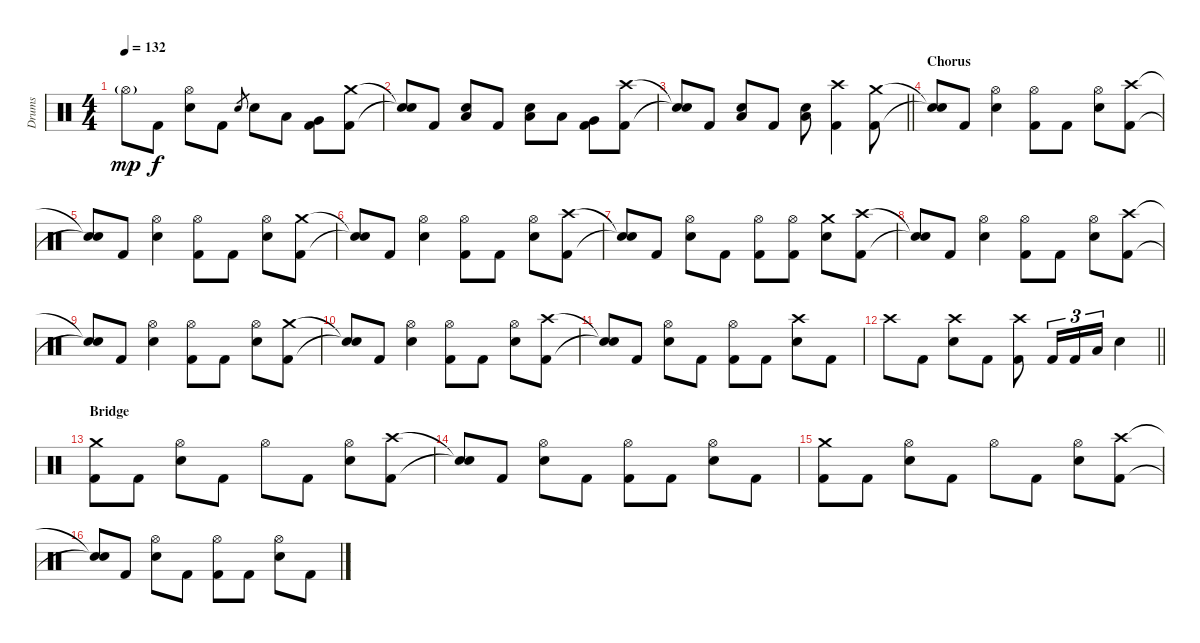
\track ("Drums" "Drums") {instrument percussion}
\staff {score}
\articulation defaults
\ts (4 4)
\tempo 132
\clef neutral
\ks c "Hi-Hat (open)"{g}.8{dy mp} "Kick (hit) 2".8{dy f}
("Hi-Hat (open)" "Electric Snare (hit)").8 "Kick (hit) 2".8 "Electric Snare (hit)".8{gr} "Electric Snare (hit)".8 "Low Tom (hit)".8 ("Very Low Tom (hit)" "Kick (hit) 2").8 ("Crash medium (hit)" "Kick (hit) 2").8 |
("Snare (hit)"{t} "Snare (hit)"{t}).8 "Kick (hit) 2".8 ("Low Floor Tom (hit)" "Electric Snare (hit)").8 "Kick (hit) 2".8 ("Low Floor Tom (hit)" "Electric Snare (hit)").8 "Low Tom (hit)".8 ("Very Low Tom (hit)" "Kick (hit) 2").8 ("Crash high (hit)" "Kick (hit) 2").8 |
\barLineRight lightlight
("Snare (hit)"{t} "Snare (hit)"{t}).8 "Kick (hit) 2".8 ("Low Floor Tom (hit)" "Electric Snare (hit)").8 "Kick (hit) 2".8 ("Low Floor Tom (hit)" "Electric Snare (hit)").8 ("Crash high (hit)" "Kick (hit) 2").4 ("Crash medium (hit)" "Kick (hit) 2").8 |
\section ("" "Chorus")
("Snare (hit)"{t} "Snare (hit)"{t}).8 "Kick (hit) 2".8 ("Hi-Hat (open)" "Electric Snare (hit)").4 ("Hi-Hat (open)" "Kick (hit) 2").8 "Kick (hit) 2".8 ("Hi-Hat (open)" "Electric Snare (hit)").8 ("Crash high (hit)" "Kick (hit) 2").8 |
("Snare (hit)"{t} "Snare (hit)"{t}).8 "Kick (hit) 2".8 ("Hi-Hat (open)" "Electric Snare (hit)").4 ("Hi-Hat (open)" "Kick (hit) 2").8 "Kick (hit) 2".8 ("Hi-Hat (open)" "Electric Snare (hit)").8 ("Crash medium (hit)" "Kick (hit) 2").8 |
("Snare (hit)"{t} "Snare (hit)"{t}).8 "Kick (hit) 2".8 ("Hi-Hat (open)" "Electric Snare (hit)").4 ("Hi-Hat (open)" "Kick (hit) 2").8 "Kick (hit) 2".8 ("Hi-Hat (open)" "Electric Snare (hit)").8 ("Crash high (hit)" "Kick (hit) 2").8 |
("Snare (hit)"{t} "Snare (hit)"{t}).8 "Kick (hit) 2".8 ("Hi-Hat (open)" "Electric Snare (hit)").8 "Kick (hit) 2".8 ("Hi-Hat (open)" "Kick (hit) 2").8 ("Hi-Hat (open)" "Kick (hit) 2").8 ("Crash medium (hit)" "Electric Snare (hit)").8 ("Crash high (hit)" "Kick (hit) 2").8 |
("Snare (hit)"{t} "Snare (hit)"{t}).8 "Kick (hit) 2".8 ("Hi-Hat (open)" "Electric Snare (hit)").4 ("Hi-Hat (open)" "Kick (hit) 2").8 "Kick (hit) 2".8 ("Hi-Hat (open)" "Electric Snare (hit)").8 ("Crash high (hit)" "Kick (hit) 2").8 |
("Snare (hit)"{t} "Snare (hit)"{t}).8 "Kick (hit) 2".8 ("Hi-Hat (open)" "Electric Snare (hit)").4 ("Hi-Hat (open)" "Kick (hit) 2").8 "Kick (hit) 2".8 ("Hi-Hat (open)" "Electric Snare (hit)").8 ("Crash medium (hit)" "Kick (hit) 2").8 |
("Snare (hit)"{t} "Snare (hit)"{t}).8 "Kick (hit) 2".8 ("Hi-Hat (open)" "Electric Snare (hit)").4 ("Hi-Hat (open)" "Kick (hit) 2").8 "Kick (hit) 2".8 ("Hi-Hat (open)" "Electric Snare (hit)").8 ("Crash high (hit)" "Kick (hit) 2").8 |
("Snare (hit)"{t} "Snare (hit)"{t}).8 "Kick (hit) 2".8 ("Hi-Hat (open)" "Electric Snare (hit)").8 "Kick (hit) 2".8 ("Hi-Hat (open)" "Kick (hit) 2").8 "Kick (hit) 2".8 ("Crash high (hit)" "Electric Snare (hit)").8 "Kick (hit) 2".8 |
\barLineRight lightlight "Crash high (hit)".8 "Kick (hit) 2".8
("Crash high (hit)" "Electric Snare (hit)").8 "Kick (hit) 2".8 ("Crash high (hit)" "Kick (hit) 2").8 "Kick (hit) 2".16{tu (3 2)} "Kick (hit) 2".16{tu (3 2)} "Low Tom (hit)".16{tu (3 2)} "Electric Snare (hit)".4 |
\section ("" "Bridge")
("Crash medium (hit)" "Kick (hit) 2").8 "Kick (hit) 2".8 ("Hi-Hat (open)" "Electric Snare (hit)").8 "Kick (hit) 2".8 "Hi-Hat (open)".8 "Kick (hit) 2".8 ("Hi-Hat (open)" "Electric Snare (hit)").8 ("Crash high (hit)" "Kick (hit) 2").8 |
("Snare (hit)"{t} "Snare (hit)"{t}).8 "Kick (hit) 2".8 ("Hi-Hat (open)" "Electric Snare (hit)").8 "Kick (hit) 2".8 ("Hi-Hat (open)" "Kick (hit) 2").8 "Kick (hit) 2".8 ("Hi-Hat (open)" "Electric Snare (hit)").8 "Kick (hit) 2".8 |
("Crash medium (hit)" "Kick (hit) 2").8 "Kick (hit) 2".8 ("Hi-Hat (open)" "Electric Snare (hit)").8 "Kick (hit) 2".8 "Hi-Hat (open)".8 "Kick (hit) 2".8 ("Hi-Hat (open)" "Electric Snare (hit)").8 ("Crash high (hit)" "Kick (hit) 2").8 |
("Snare (hit)"{t} "Snare (hit)"{t}).8 "Kick (hit) 2".8 ("Hi-Hat (open)" "Electric Snare (hit)").8 "Kick (hit) 2".8 ("Hi-Hat (open)" "Kick (hit) 2").8 "Kick (hit) 2".8 ("Hi-Hat (open)" "Electric Snare (hit)").8 "Kick (hit) 2".8
